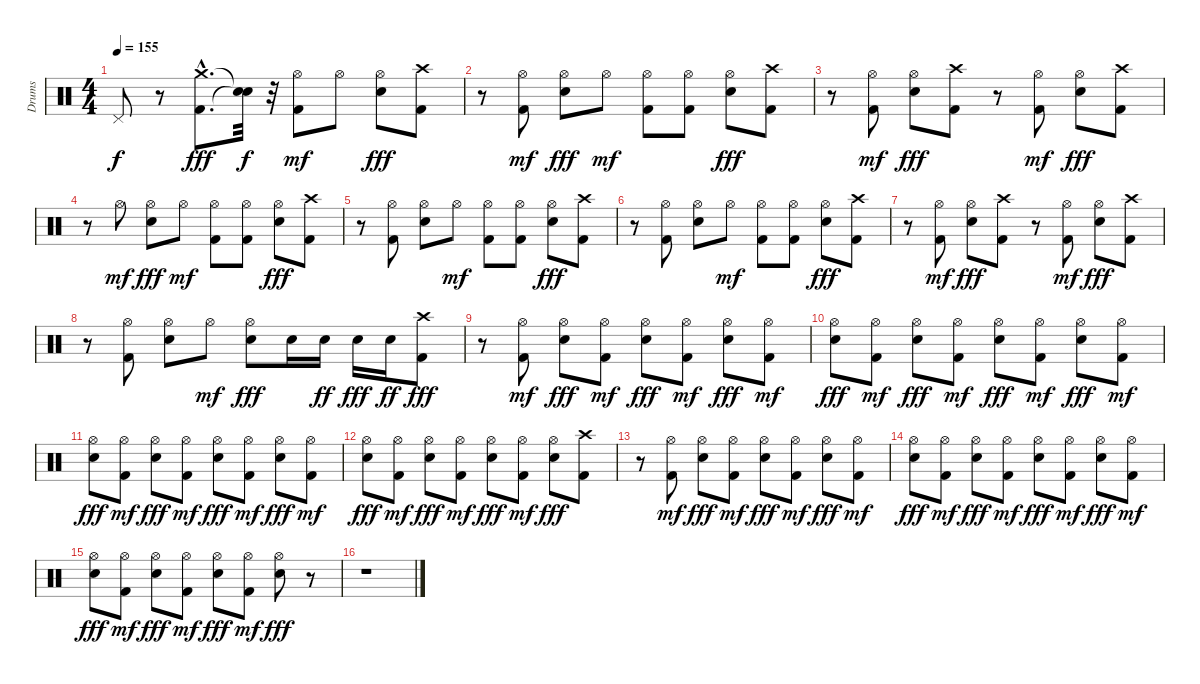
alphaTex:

\track ("Drums" "Drums") {instrument percussion}
\staff {score}
\articulation defaults
\ts (4 4)
\tempo 155
\clef neutral
\ks c "Pedal Hi-Hat (hit)".8{dy f}
r.8 ("Crash medium (hit)"{hac} "Kick (hit) 2"{hac}).8{d dy fff} ("Snare (hit)"{t} "Snare (hit)"{t}).32{dy f} r.32 ("Kick (hit) 2" "Hi-Hat (open)").8{dy mf} "Hi-Hat (open)".8 ("Snare (hit) 2" "Hi-Hat (open)").8{dy fff} ("Kick (hit) 2" "Crash high (hit)").8 |
r.8 ("Kick (hit) 2" "Hi-Hat (open)").8{dy mf} ("Snare (hit) 2" "Hi-Hat (open)").8{dy fff} "Hi-Hat (open)".8{dy mf} ("Kick (hit) 2" "Hi-Hat (open)").8 ("Kick (hit) 2" "Hi-Hat (open)").8 ("Snare (hit) 2" "Hi-Hat (open)").8{dy fff} ("Kick (hit) 2" "Crash high (hit)").8 |
r.8 ("Kick (hit) 2" "Hi-Hat (open)").8{dy mf} ("Snare (hit) 2" "Hi-Hat (open)").8{dy fff} ("Kick (hit) 2" "Crash high (hit)").8 r.8 ("Kick (hit) 2" "Hi-Hat (open)").8{dy mf} ("Snare (hit) 2" "Hi-Hat (open)").8{dy fff} ("Kick (hit) 2" "Crash high (hit)").8 |
r.8 "Hi-Hat (open)".8{dy mf} ("Snare (hit) 2" "Hi-Hat (open)").8{dy fff} "Hi-Hat (open)".8{dy mf} ("Kick (hit) 2" "Hi-Hat (open)").8 ("Kick (hit) 2" "Hi-Hat (open)").8 ("Snare (hit) 2" "Hi-Hat (open)").8{dy fff} ("Kick (hit) 2" "Crash high (hit)").8 |
r.8 ("Hi-Hat (open)" "Kick (hit) 2").8 ("Snare (hit) 2" "Hi-Hat (open)").8 "Hi-Hat (open)".8{dy mf} ("Kick (hit) 2" "Hi-Hat (open)").8 ("Kick (hit) 2" "Hi-Hat (open)").8 ("Snare (hit) 2" "Hi-Hat (open)").8{dy fff} ("Kick (hit) 2" "Crash high (hit)").8 |
r.8 ("Hi-Hat (open)" "Kick (hit) 2").8 ("Snare (hit) 2" "Hi-Hat (open)").8 "Hi-Hat (open)".8{dy mf} ("Kick (hit) 2" "Hi-Hat (open)").8 ("Kick (hit) 2" "Hi-Hat (open)").8 ("Snare (hit) 2" "Hi-Hat (open)").8{dy fff} ("Kick (hit) 2" "Crash high (hit)").8 |
r.8 ("Kick (hit) 2" "Hi-Hat (open)").8{dy mf} ("Snare (hit) 2" "Hi-Hat (open)").8{dy fff} ("Kick (hit) 2" "Crash high (hit)").8 r.8 ("Kick (hit) 2" "Hi-Hat (open)").8{dy mf} ("Snare (hit) 2" "Hi-Hat (open)").8{dy fff} ("Kick (hit) 2" "Crash high (hit)").8 |
r.8 ("Hi-Hat (open)" "Kick (hit) 2").8 ("Snare (hit) 2" "Hi-Hat (open)").8 "Hi-Hat (open)".8{dy mf} ("Hi-Hat (open)" "Snare (hit) 2").8{dy fff} "Snare (hit) 2".16 "Snare (hit) 2".16{dy ff} "Snare (hit) 2".16{dy fff} "Snare (hit) 2".16{dy ff} ("Kick (hit) 2" "Crash high (hit)").8{dy fff} |
r.8 ("Kick (hit) 2" "Hi-Hat (open)").8{dy mf} ("Snare (hit) 2" "Hi-Hat (open)").8{dy fff} ("Kick (hit) 2" "Hi-Hat (open)").8{dy mf} ("Snare (hit) 2" "Hi-Hat (open)").8{dy fff} ("Kick (hit) 2" "Hi-Hat (open)").8{dy mf} ("Snare (hit) 2" "Hi-Hat (open)").8{dy fff} ("Kick (hit) 2" "Hi-Hat (open)").8{dy mf} |
("Snare (hit) 2" "Hi-Hat (open)").8{dy fff} ("Kick (hit) 2" "Hi-Hat (open)").8{dy mf} ("Snare (hit) 2" "Hi-Hat (open)").8{dy fff} ("Kick (hit) 2" "Hi-Hat (open)").8{dy mf} ("Snare (hit) 2" "Hi-Hat (open)").8{dy fff} ("Kick (hit) 2" "Hi-Hat (open)").8{dy mf} ("Snare (hit) 2" "Hi-Hat (open)").8{dy fff} ("Kick (hit) 2" "Hi-Hat (open)").8{dy mf} |
("Snare (hit) 2" "Hi-Hat (open)").8{dy fff} ("Kick (hit) 2" "Hi-Hat (open)").8{dy mf} ("Snare (hit) 2" "Hi-Hat (open)").8{dy fff} ("Kick (hit) 2" "Hi-Hat (open)").8{dy mf} ("Snare (hit) 2" "Hi-Hat (open)").8{dy fff} ("Kick (hit) 2" "Hi-Hat (open)").8{dy mf} ("Snare (hit) 2" "Hi-Hat (open)").8{dy fff} ("Kick (hit) 2" "Hi-Hat (open)").8{dy mf} |
("Snare (hit) 2" "Hi-Hat (open)").8{dy fff} ("Kick (hit) 2" "Hi-Hat (open)").8{dy mf} ("Snare (hit) 2" "Hi-Hat (open)").8{dy fff} ("Kick (hit) 2" "Hi-Hat (open)").8{dy mf} ("Snare (hit) 2" "Hi-Hat (open)").8{dy fff} ("Kick (hit) 2" "Hi-Hat (open)").8{dy mf} ("Snare (hit) 2" "Hi-Hat (open)").8{dy fff} ("Kick (hit) 2" "Crash high (hit)").8 |
r.8 ("Kick (hit) 2" "Hi-Hat (open)").8{dy mf} ("Snare (hit) 2" "Hi-Hat (open)").8{dy fff} ("Kick (hit) 2" "Hi-Hat (open)").8{dy mf} ("Snare (hit) 2" "Hi-Hat (open)").8{dy fff} ("Kick (hit) 2" "Hi-Hat (open)").8{dy mf} ("Snare (hit) 2" "Hi-Hat (open)").8{dy fff} ("Kick (hit) 2" "Hi-Hat (open)").8{dy mf} |
("Snare (hit) 2" "Hi-Hat (open)").8{dy fff} ("Kick (hit) 2" "Hi-Hat (open)").8{dy mf} ("Snare (hit) 2" "Hi-Hat (open)").8{dy fff} ("Kick (hit) 2" "Hi-Hat (open)").8{dy mf} ("Snare (hit) 2" "Hi-Hat (open)").8{dy fff} ("Kick (hit) 2" "Hi-Hat (open)").8{dy mf} ("Snare (hit) 2" "Hi-Hat (open)").8{dy fff} ("Kick (hit) 2" "Hi-Hat (open)").8{dy mf} |
("Snare (hit) 2" "Hi-Hat (open)").8{dy fff} ("Kick (hit) 2" "Hi-Hat (open)").8{dy mf} ("Snare (hit) 2" "Hi-Hat (open)").8{dy fff} ("Kick (hit) 2" "Hi-Hat (open)").8{dy mf} ("Snare (hit) 2" "Hi-Hat (open)").8{dy fff} ("Kick (hit) 2" "Hi-Hat (open)").8{dy mf} ("Snare (hit) 2" "Hi-Hat (open)").8{dy fff} r.8 |
r.1
